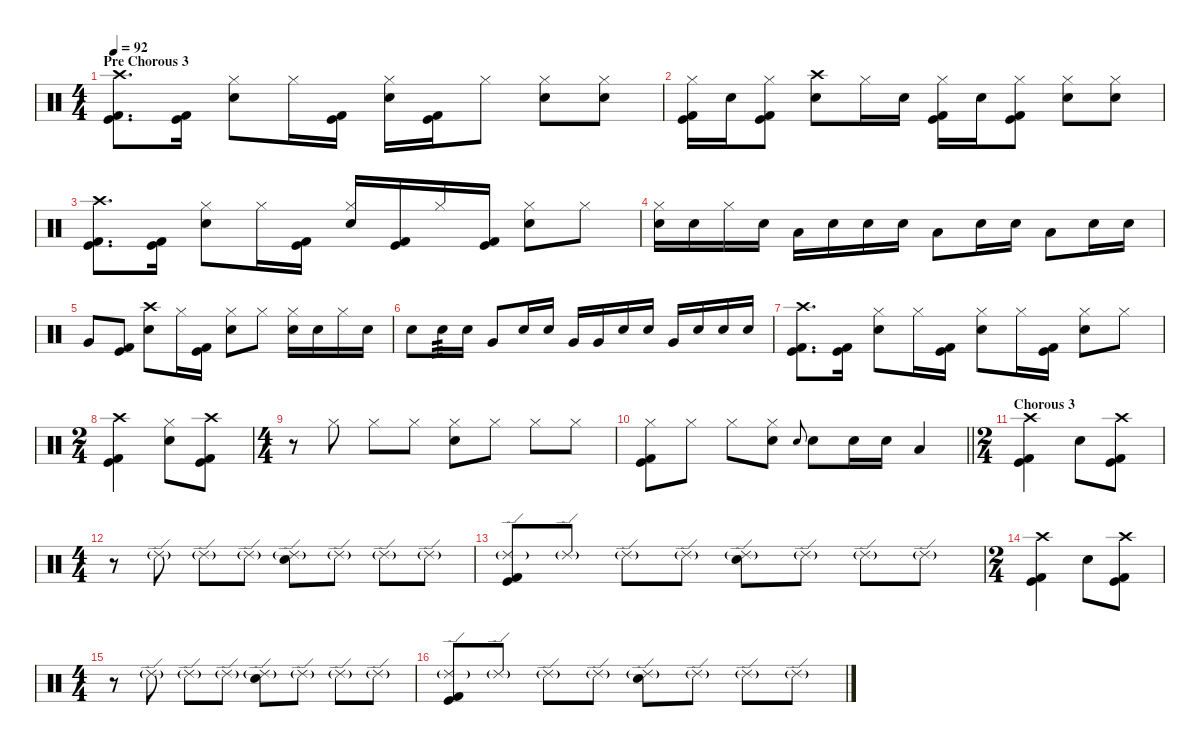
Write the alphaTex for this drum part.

\defaultSystemsLayout 4
\hideDynamics
\bracketExtendMode nobrackets
\singleTrackTrackNamePolicy hidden
\multiTrackTrackNamePolicy hidden
\otherSystemsTrackNameOrientation horizontal
\track ("Lars" "drm.") {instrument percussion}
\staff {score}
\articulation defaults
\ts (4 4)
\section ("" "Pre Chorous 3")
\tempo 92
\clef neutral
\ks c
("Crash high (hit)" "Kick (hit)" "Kick (hit) 2").8{d dy f beam Down} ("Kick (hit)" "Kick (hit) 2").16{beam Down} ("Hi-Hat (closed)" "Snare (hit) 2").8{beam Down} "Hi-Hat (closed)".16{beam Down} ("Kick (hit)" "Kick (hit) 2").16{beam Down} ("Hi-Hat (closed)" "Snare (hit) 2").16{beam Down} ("Kick (hit)" "Kick (hit) 2").16{beam Down} "Hi-Hat (closed)".8{beam Down} ("Hi-Hat (closed)" "Snare (hit) 2").8{beam Down} ("Hi-Hat (closed)" "Snare (hit) 2").8{beam Down} |
("Hi-Hat (closed)" "Kick (hit)" "Kick (hit) 2").16{beam Down} "Snare (hit) 2".16{beam Down} ("Hi-Hat (closed)" "Kick (hit)" "Kick (hit) 2").8{beam Down} ("Crash high (hit)" "Snare (hit) 2").8{beam Down} "Hi-Hat (closed)".16{beam Down} "Snare (hit) 2".16{beam Down} ("Hi-Hat (closed)" "Kick (hit)" "Kick (hit) 2").16{beam Down} "Snare (hit) 2".16{beam Down} ("Hi-Hat (closed)" "Kick (hit)" "Kick (hit) 2").8{beam Down} ("Hi-Hat (closed)" "Snare (hit) 2").8{beam Down} ("Hi-Hat (closed)" "Snare (hit) 2").8{beam Down} |
("Crash high (hit)" "Kick (hit)" "Kick (hit) 2").8{d beam Down} ("Kick (hit)" "Kick (hit) 2").16{beam Down} ("Hi-Hat (closed)" "Snare (hit) 2").8{beam Down} "Hi-Hat (closed)".16{beam Down} ("Kick (hit)" "Kick (hit) 2").16{beam Down} ("Hi-Hat (closed)" "Snare (hit) 2").16{beam Up} ("Kick (hit)" "Kick (hit) 2").16{beam Up} "Hi-Hat (closed)".16{beam Up} ("Kick (hit)" "Kick (hit) 2").16{beam Up} ("Hi-Hat (closed)" "Snare (hit) 2").8{beam Down} "Hi-Hat (closed)".8{beam Down} |
("Hi-Hat (closed)" "Snare (hit) 2").16{beam Down} "Snare (hit) 2".16{beam Down} "Hi-Hat (closed)".16{beam Down} "Snare (hit) 2".16{beam Down} "Low Tom (hit)".16{beam Down} "Snare (hit) 2".16{beam Down} "Snare (hit) 2".16{beam Down} "Snare (hit) 2".16{beam Down} "Low Tom (hit)".8{beam Down} "Snare (hit) 2".16{beam Down} "Snare (hit) 2".16{beam Down} "Low Tom (hit)".8{beam Down} "Snare (hit) 2".16{beam Down} "Snare (hit) 2".16{beam Down} |
"Very Low Tom (hit)".8{beam Up} ("Kick (hit)" "Kick (hit) 2").8{beam Up} ("Crash high (hit)" "Snare (hit) 2").8{beam Down} "Hi-Hat (closed)".16{beam Down} ("Kick (hit)" "Kick (hit) 2").16{beam Down} ("Hi-Hat (closed)" "Snare (hit) 2").8{beam Down} "Hi-Hat (closed)".8{beam Down} ("Hi-Hat (closed)" "Snare (hit) 2").16{beam Down} "Snare (hit) 2".16{beam Down} "Hi-Hat (closed)".16{beam Down} "Snare (hit) 2".16{beam Down} |
"Snare (hit) 2".8{beam Down} "Snare (hit) 2".16{tp 3 beam Down} "Snare (hit) 2".16{beam Down} "Very Low Tom (hit)".8{beam Up} "Snare (hit) 2".16{beam Up} "Snare (hit) 2".16{beam Up} "Very Low Tom (hit)".16{beam Up} "Very Low Tom (hit)".16{beam Up} "Snare (hit) 2".16{beam Up} "Snare (hit) 2".16{beam Up} "Very Low Tom (hit)".16{beam Up} "Snare (hit) 2".16{beam Up} "Snare (hit) 2".16{beam Up} "Snare (hit) 2".16{beam Up} |
("Crash high (hit)" "Kick (hit)" "Kick (hit) 2").8{d beam Down} ("Kick (hit)" "Kick (hit) 2").16{beam Down} ("Hi-Hat (closed)" "Snare (hit) 2").8{beam Down} "Hi-Hat (closed)".16{beam Down} ("Kick (hit)" "Kick (hit) 2").16{beam Down} ("Hi-Hat (closed)" "Snare (hit) 2").8{beam Down} "Hi-Hat (closed)".16{beam Down} ("Kick (hit)" "Kick (hit) 2").16{beam Down} ("Hi-Hat (closed)" "Snare (hit) 2").8{beam Down} "Hi-Hat (closed)".8{beam Down} |
\ts (2 4)
\beaming (8 2 2 2 2)
("Crash high (hit)" "Kick (hit)" "Kick (hit) 2").4{beam Down} ("Hi-Hat (closed)" "Snare (hit) 2").8{beam Down} ("Crash high (hit)" "Kick (hit)" "Kick (hit) 2").8{beam Down} |
\ts (4 4)
\beaming (8 2 2 2 2)
r.8{beam Down} "Hi-Hat (closed)".8{beam Down} "Hi-Hat (closed)".8{beam Down} "Hi-Hat (closed)".8{beam Down} ("Hi-Hat (closed)" "Snare (hit) 2").8{beam Down} "Hi-Hat (closed)".8{beam Down} "Hi-Hat (closed)".8{beam Down} "Hi-Hat (closed)".8{beam Down} |
\barLineRight lightlight
("Hi-Hat (closed)" "Kick (hit)" "Kick (hit) 2").8{beam Down} "Hi-Hat (closed)".8{beam Down} "Hi-Hat (closed)".8{beam Down} ("Hi-Hat (closed)" "Snare (hit) 2").8{beam Down} "Electric Snare (hit)".8{gr onbeat dy mf beam Up} "Snare (hit) 2".8{dy f beam Down} "Snare (hit) 2".16{beam Down} "Snare (hit) 2".16{beam Down} "Low Tom (hit)".4{beam Up} |
\ts (2 4)
\beaming (8 2 2 2 2)
\section ("" "Chorous 3")
("Crash high (hit)" "Kick (hit)" "Kick (hit) 2").4{beam Down} "Snare (hit) 2".8{beam Down} ("Crash high (hit)" "Kick (hit)" "Kick (hit) 2").8{beam Down} |
\ts (4 4)
\beaming (8 2 2 2 2)
r.8{beam Down} "Ride (edge) 2"{g}.8{dy mf beam Down} "Ride (edge) 2"{g}.8{beam Down} "Ride (edge) 2"{g}.8{beam Down} ("Ride (edge) 2"{g} "Snare (hit) 2").8{dy f beam Down} "Ride (edge) 2"{g}.8{dy mf beam Down} "Ride (edge) 2"{g}.8{beam Down} "Ride (edge) 2"{g}.8{beam Down} |
("Ride (edge) 2"{g} "Kick (hit)" "Kick (hit) 2").8{dy f beam Up} "Ride (edge) 2"{g}.8{dy mf beam Up} "Ride (edge) 2"{g}.8{beam Down} "Ride (edge) 2"{g}.8{beam Down} ("Ride (edge) 2"{g} "Snare (hit) 2").8{dy f beam Down} "Ride (edge) 2"{g}.8{dy mf beam Down} "Ride (edge) 2"{g}.8{beam Down} "Ride (edge) 2"{g}.8{beam Down} |
\ts (2 4)
\beaming (8 2 2 2 2)
("Crash high (hit)" "Kick (hit)" "Kick (hit) 2").4{dy f beam Down} "Snare (hit) 2".8{beam Down} ("Crash high (hit)" "Kick (hit)" "Kick (hit) 2").8{beam Down} |
\ts (4 4)
\beaming (8 2 2 2 2)
r.8{beam Down} "Ride (edge) 2"{g}.8{dy mf beam Down} "Ride (edge) 2"{g}.8{beam Down} "Ride (edge) 2"{g}.8{beam Down} ("Ride (edge) 2"{g} "Snare (hit) 2").8{dy f beam Down} "Ride (edge) 2"{g}.8{dy mf beam Down} "Ride (edge) 2"{g}.8{beam Down} "Ride (edge) 2"{g}.8{beam Down} |
("Ride (edge) 2"{g} "Kick (hit)" "Kick (hit) 2").8{dy f beam Up} "Ride (edge) 2"{g}.8{dy mf beam Up} "Ride (edge) 2"{g}.8{beam Down} "Ride (edge) 2"{g}.8{beam Down} ("Ride (edge) 2"{g} "Snare (hit) 2").8{dy f beam Down} "Ride (edge) 2"{g}.8{dy mf beam Down} "Ride (edge) 2"{g}.8{beam Down} "Ride (edge) 2"{g}.8{beam Down}
